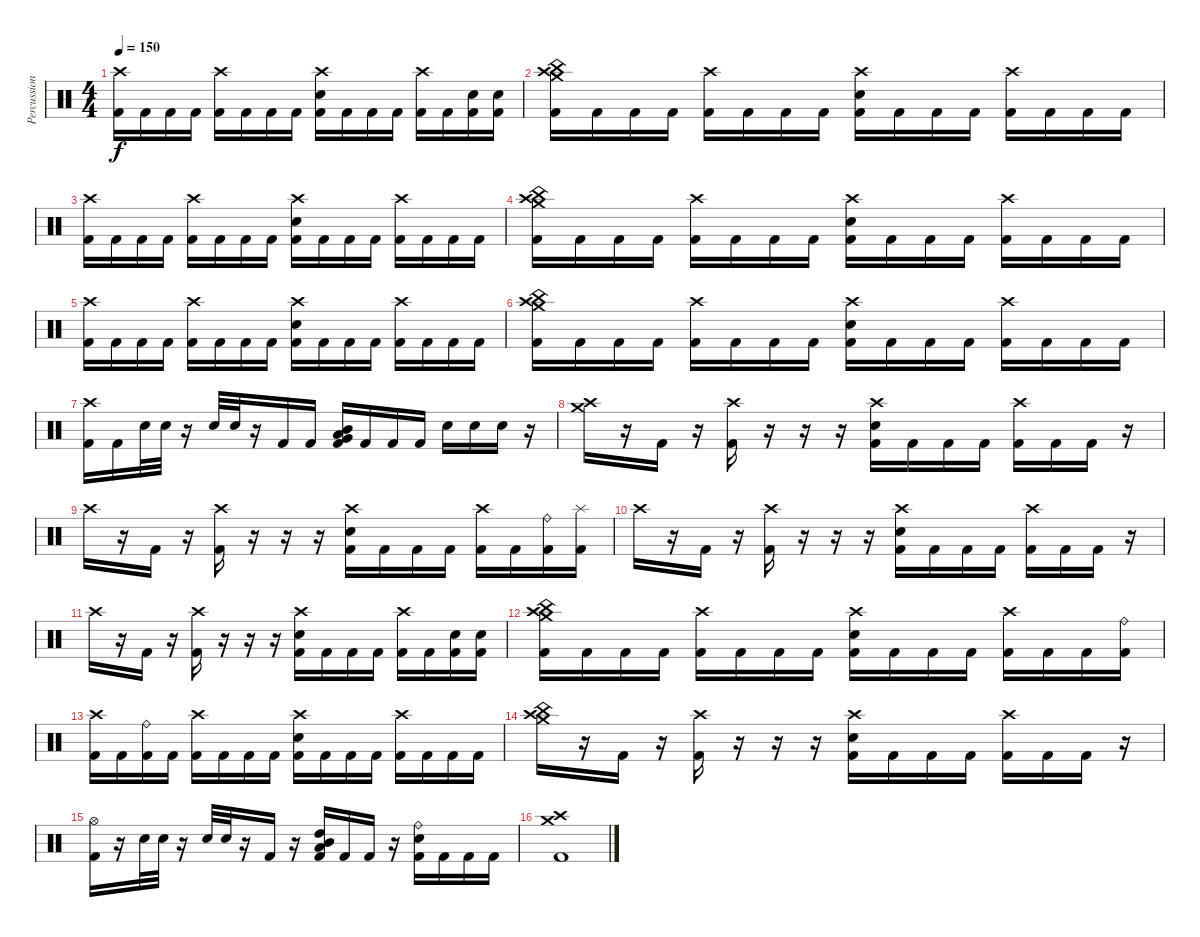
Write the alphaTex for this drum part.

\track ("Percussion" "Percussion") {instrument percussion}
\staff {score}
\articulation defaults
\ts (4 4)
\tempo 150
\clef neutral
\ks c
("Crash high (hit)" "Kick (hit) 2").16{dy f} "Kick (hit) 2".16 "Kick (hit) 2".16 "Kick (hit) 2".16 ("Crash high (hit)" "Kick (hit) 2").16 "Kick (hit) 2".16 "Kick (hit) 2".16 "Kick (hit) 2".16 ("Crash high (hit)" "Electric Snare (hit)" "Kick (hit) 2").16 "Kick (hit) 2".16 "Kick (hit) 2".16 "Kick (hit) 2".16 ("Crash high (hit)" "Kick (hit) 2").16 "Kick (hit) 2".16 ("Electric Snare (hit)" "Kick (hit) 2").16 ("Electric Snare (hit)" "Kick (hit) 2").16 |
("Crash high (hit)" "China (hit)" "Crash medium (hit)" "Kick (hit) 2").16 "Kick (hit) 2".16 "Kick (hit) 2".16 "Kick (hit) 2".16 ("Crash high (hit)" "Kick (hit) 2").16 "Kick (hit) 2".16 "Kick (hit) 2".16 "Kick (hit) 2".16 ("Crash high (hit)" "Electric Snare (hit)" "Kick (hit) 2").16 "Kick (hit) 2".16 "Kick (hit) 2".16 "Kick (hit) 2".16 ("Crash high (hit)" "Kick (hit) 2").16 "Kick (hit) 2".16 "Kick (hit) 2".16 "Kick (hit) 2".16 |
("Crash high (hit)" "Kick (hit) 2").16 "Kick (hit) 2".16 "Kick (hit) 2".16 "Kick (hit) 2".16 ("Crash high (hit)" "Kick (hit) 2").16 "Kick (hit) 2".16 "Kick (hit) 2".16 "Kick (hit) 2".16 ("Crash high (hit)" "Electric Snare (hit)" "Kick (hit) 2").16 "Kick (hit) 2".16 "Kick (hit) 2".16 "Kick (hit) 2".16 ("Crash high (hit)" "Kick (hit) 2").16 "Kick (hit) 2".16 "Kick (hit) 2".16 "Kick (hit) 2".16 |
("Crash high (hit)" "China (hit)" "Crash medium (hit)" "Kick (hit) 2").16 "Kick (hit) 2".16 "Kick (hit) 2".16 "Kick (hit) 2".16 ("Crash high (hit)" "Kick (hit) 2").16 "Kick (hit) 2".16 "Kick (hit) 2".16 "Kick (hit) 2".16 ("Crash high (hit)" "Electric Snare (hit)" "Kick (hit) 2").16 "Kick (hit) 2".16 "Kick (hit) 2".16 "Kick (hit) 2".16 ("Crash high (hit)" "Kick (hit) 2").16 "Kick (hit) 2".16 "Kick (hit) 2".16 "Kick (hit) 2".16 |
("Crash high (hit)" "Kick (hit) 2").16 "Kick (hit) 2".16 "Kick (hit) 2".16 "Kick (hit) 2".16 ("Crash high (hit)" "Kick (hit) 2").16 "Kick (hit) 2".16 "Kick (hit) 2".16 "Kick (hit) 2".16 ("Crash high (hit)" "Electric Snare (hit)" "Kick (hit) 2").16 "Kick (hit) 2".16 "Kick (hit) 2".16 "Kick (hit) 2".16 ("Crash high (hit)" "Kick (hit) 2").16 "Kick (hit) 2".16 "Kick (hit) 2".16 "Kick (hit) 2".16 |
("Crash high (hit)" "China (hit)" "Crash medium (hit)" "Kick (hit) 2").16 "Kick (hit) 2".16 "Kick (hit) 2".16 "Kick (hit) 2".16 ("Crash high (hit)" "Kick (hit) 2").16 "Kick (hit) 2".16 "Kick (hit) 2".16 "Kick (hit) 2".16 ("Crash high (hit)" "Electric Snare (hit)" "Kick (hit) 2").16 "Kick (hit) 2".16 "Kick (hit) 2".16 "Kick (hit) 2".16 ("Crash high (hit)" "Kick (hit) 2").16 "Kick (hit) 2".16 "Kick (hit) 2".16 "Kick (hit) 2".16 |
("Crash high (hit)" "Kick (hit) 2").16 "Kick (hit) 2".16 "Electric Snare (hit)".32 "Electric Snare (hit)".32 r.16 "Electric Snare (hit)".32 "Electric Snare (hit)".32 r.16 "Kick (hit) 2".16 "Kick (hit) 2".16 ("Very Low Tom (hit)" "Low Tom (hit)" "Mid Tom (hit)" "Kick (hit) 2").16 "Kick (hit) 2".16 "Kick (hit) 2".16 "Kick (hit) 2".16 "Electric Snare (hit)".16 "Electric Snare (hit)".16 "Electric Snare (hit)".16 r.16 |
("Crash high (hit)" "Crash medium (hit)").16 r.16 "Kick (hit) 2".16 r.16 ("Crash high (hit)" "Kick (hit) 2").16 r.16 r.16 r.16 ("Crash high (hit)" "Electric Snare (hit)" "Kick (hit) 2").16 "Kick (hit) 2".16 "Kick (hit) 2".16 "Kick (hit) 2".16 ("Crash high (hit)" "Kick (hit) 2").16 "Kick (hit) 2".16 "Kick (hit) 2".16 r.16 |
"Crash high (hit)".16 r.16 "Kick (hit) 2".16 r.16 ("Crash high (hit)" "Kick (hit) 2").16 r.16 r.16 r.16 ("Crash high (hit)" "Electric Snare (hit)" "Kick (hit) 2").16 "Kick (hit) 2".16 "Kick (hit) 2".16 "Kick (hit) 2".16 ("Crash high (hit)" "Kick (hit) 2").16 "Kick (hit) 2".16 ("Ride (bell)" "Kick (hit) 2").16 ("Splash (hit)" "Kick (hit) 2").16 |
"Crash high (hit)".16 r.16 "Kick (hit) 2".16 r.16 ("Crash high (hit)" "Kick (hit) 2").16 r.16 r.16 r.16 ("Crash high (hit)" "Electric Snare (hit)" "Kick (hit) 2").16 "Kick (hit) 2".16 "Kick (hit) 2".16 "Kick (hit) 2".16 ("Crash high (hit)" "Kick (hit) 2").16 "Kick (hit) 2".16 "Kick (hit) 2".16 r.16 |
"Crash high (hit)".16 r.16 "Kick (hit) 2".16 r.16 ("Crash high (hit)" "Kick (hit) 2").16 r.16 r.16 r.16 ("Crash high (hit)" "Electric Snare (hit)" "Kick (hit) 2").16 "Kick (hit) 2".16 "Kick (hit) 2".16 "Kick (hit) 2".16 ("Crash high (hit)" "Kick (hit) 2").16 "Kick (hit) 2".16 ("Electric Snare (hit)" "Kick (hit) 2").16 ("Electric Snare (hit)" "Kick (hit) 2").16 |
("Crash high (hit)" "China (hit)" "Crash medium (hit)" "Kick (hit) 2").16 "Kick (hit) 2".16 "Kick (hit) 2".16 "Kick (hit) 2".16 ("Crash high (hit)" "Kick (hit) 2").16 "Kick (hit) 2".16 "Kick (hit) 2".16 "Kick (hit) 2".16 ("Crash high (hit)" "Electric Snare (hit)" "Kick (hit) 2").16 "Kick (hit) 2".16 "Kick (hit) 2".16 "Kick (hit) 2".16 ("Crash high (hit)" "Kick (hit) 2").16 "Kick (hit) 2".16 "Kick (hit) 2".16 ("Ride (bell)" "Kick (hit) 2").16 |
("Crash high (hit)" "Kick (hit) 2").16 "Kick (hit) 2".16 ("Ride (bell)" "Kick (hit) 2").16 "Kick (hit) 2".16 ("Crash high (hit)" "Kick (hit) 2").16 "Kick (hit) 2".16 "Kick (hit) 2".16 "Kick (hit) 2".16 ("Crash high (hit)" "Electric Snare (hit)" "Kick (hit) 2").16 "Kick (hit) 2".16 "Kick (hit) 2".16 "Kick (hit) 2".16 ("Crash high (hit)" "Kick (hit) 2").16 "Kick (hit) 2".16 "Kick (hit) 2".16 "Kick (hit) 2".16 |
("Crash high (hit)" "China (hit)" "Crash medium (hit)").16 r.16 "Kick (hit) 2".16 r.16 ("Crash high (hit)" "Kick (hit) 2").16 r.16 r.16 r.16 ("Crash high (hit)" "Electric Snare (hit)" "Kick (hit) 2").16 "Kick (hit) 2".16 "Kick (hit) 2".16 "Kick (hit) 2".16 ("Crash high (hit)" "Kick (hit) 2").16 "Kick (hit) 2".16 "Kick (hit) 2".16 r.16 |
("Hi-Hat (open)" "Kick (hit) 2").16 r.16 "Electric Snare (hit)".32 "Electric Snare (hit)".32 r.16 "Electric Snare (hit)".32 "Electric Snare (hit)".32 r.16 "Kick (hit) 2".16 r.16 ("High Tom (hit)" "Mid Tom (hit)" "Low Tom (hit)" "Kick (hit) 2").16 "Kick (hit) 2".16 "Kick (hit) 2".16 r.16 ("Ride (bell)" "Electric Snare (hit)" "Kick (hit) 2").16 "Kick (hit) 2".16 "Kick (hit) 2".16 "Kick (hit) 2".16 |
("Crash medium (hit)" "Crash high (hit)" "Kick (hit) 2").1
